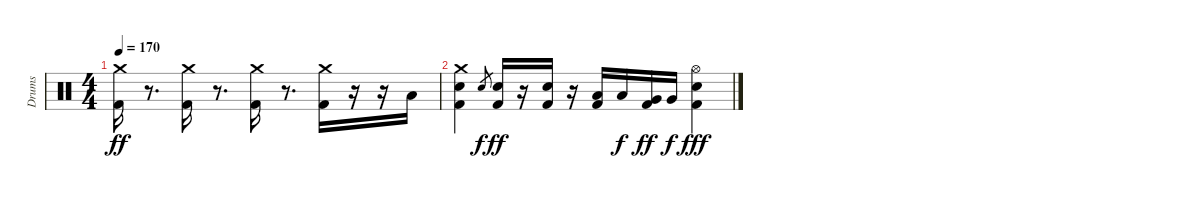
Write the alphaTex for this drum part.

\track ("Drums" "Drums") {instrument percussion}
\staff {score}
\articulation defaults
\ts (4 4)
\tempo 170
\clef neutral
\ks c
("Crash medium (hit)" "Kick (hit) 2").16{dy ff} r.8{d} ("Crash medium (hit)" "Kick (hit) 2").16 r.8{d} ("Crash medium (hit)" "Kick (hit) 2").16 r.8{d} ("Crash medium (hit)" "Kick (hit) 2").16 r.16 r.16 "Low Floor Tom (hit)".16 |
("Crash medium (hit)" "Snare (hit) 2" "Kick (hit) 2").4 "Snare (hit) 2".8{gr dy f} ("Snare (hit) 2" "Kick (hit) 2").16{dy ff} r.16 ("Snare (hit) 2" "Kick (hit) 2").16 r.16 ("Low Tom (hit)" "Kick (hit) 2").16 "Low Tom (hit)".16{dy f} ("Very Low Tom (hit)" "Kick (hit) 2").16{dy ff} "Very Low Tom (hit)".16{dy f} ("Hi-Hat (open)" "Snare (hit) 2" "Kick (hit) 2").4{dy fff}
